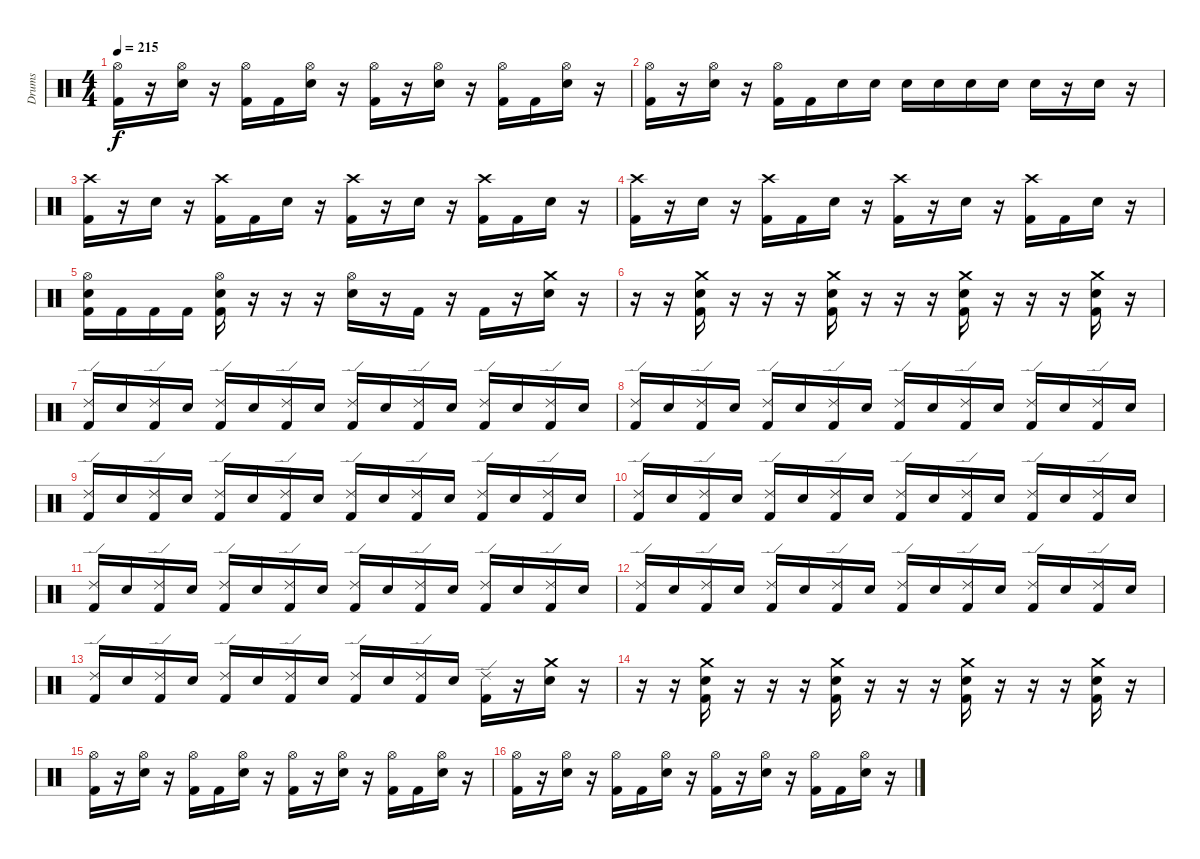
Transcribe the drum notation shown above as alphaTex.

\track ("Drums" "Drums") {instrument percussion}
\staff {score}
\articulation defaults
\ts (4 4)
\tempo 215
\clef neutral
\ks c
("Hi-Hat (open)" "Kick (hit) 2").16{dy f} r.16 ("Hi-Hat (open)" "Snare (hit) 2").16 r.16 ("Hi-Hat (open)" "Kick (hit) 2").16 "Kick (hit) 2".16 ("Hi-Hat (open)" "Snare (hit) 2").16 r.16 ("Hi-Hat (open)" "Kick (hit) 2").16 r.16 ("Hi-Hat (open)" "Snare (hit) 2").16 r.16 ("Hi-Hat (open)" "Kick (hit) 2").16 "Kick (hit) 2".16 ("Hi-Hat (open)" "Snare (hit) 2").16 r.16 |
("Hi-Hat (open)" "Kick (hit) 2").16 r.16 ("Hi-Hat (open)" "Snare (hit) 2").16 r.16 ("Hi-Hat (open)" "Kick (hit) 2").16 "Kick (hit) 2".16 "Snare (hit) 2".16 "Snare (hit) 2".16 "Snare (hit) 2".16 "Snare (hit) 2".16 "Snare (hit) 2".16 "Snare (hit) 2".16 "Snare (hit) 2".16 r.16 "Snare (hit) 2".16 r.16 |
("Crash high (hit)" "Kick (hit) 2").16 r.16 "Snare (hit) 2".16 r.16 ("Crash high (hit)" "Kick (hit) 2").16 "Kick (hit) 2".16 "Snare (hit) 2".16 r.16 ("Crash high (hit)" "Kick (hit) 2").16 r.16 "Snare (hit) 2".16 r.16 ("Crash high (hit)" "Kick (hit) 2").16 "Kick (hit) 2".16 "Snare (hit) 2".16 r.16 |
("Crash high (hit)" "Kick (hit) 2").16 r.16 "Snare (hit) 2".16 r.16 ("Crash high (hit)" "Kick (hit) 2").16 "Kick (hit) 2".16 "Snare (hit) 2".16 r.16 ("Crash high (hit)" "Kick (hit) 2").16 r.16 "Snare (hit) 2".16 r.16 ("Crash high (hit)" "Kick (hit) 2").16 "Kick (hit) 2".16 "Snare (hit) 2".16 r.16 |
("Hi-Hat (open)" "Snare (hit) 2" "Kick (hit) 2").16 "Kick (hit) 2".16 "Kick (hit) 2".16 "Kick (hit) 2".16 ("Hi-Hat (open)" "Snare (hit) 2" "Kick (hit) 2").16 r.16 r.16 r.16 ("Hi-Hat (open)" "Snare (hit) 2").16 r.16 "Kick (hit) 2".16 r.16 "Kick (hit) 2".16 r.16 ("Crash medium (hit)" "Snare (hit) 2").16 r.16 |
r.16 r.16 ("Crash medium (hit)" "Snare (hit) 2" "Kick (hit) 2").16 r.16 r.16 r.16 ("Crash medium (hit)" "Snare (hit) 2" "Kick (hit) 2").16 r.16 r.16 r.16 ("Crash medium (hit)" "Snare (hit) 2" "Kick (hit) 2").16 r.16 r.16 r.16 ("Crash medium (hit)" "Snare (hit) 2" "Kick (hit) 2").16 r.16 |
("Ride (edge) 2" "Kick (hit) 2").16 "Snare (hit) 2".16 ("Ride (edge) 2" "Kick (hit) 2").16 "Snare (hit) 2".16 ("Ride (edge) 2" "Kick (hit) 2").16 "Snare (hit) 2".16 ("Ride (edge) 2" "Kick (hit) 2").16 "Snare (hit) 2".16 ("Ride (edge) 2" "Kick (hit) 2").16 "Snare (hit) 2".16 ("Ride (edge) 2" "Kick (hit) 2").16 "Snare (hit) 2".16 ("Ride (edge) 2" "Kick (hit) 2").16 "Snare (hit) 2".16 ("Ride (edge) 2" "Kick (hit) 2").16 "Snare (hit) 2".16 |
("Ride (edge) 2" "Kick (hit) 2").16 "Snare (hit) 2".16 ("Ride (edge) 2" "Kick (hit) 2").16 "Snare (hit) 2".16 ("Ride (edge) 2" "Kick (hit) 2").16 "Snare (hit) 2".16 ("Ride (edge) 2" "Kick (hit) 2").16 "Snare (hit) 2".16 ("Ride (edge) 2" "Kick (hit) 2").16 "Snare (hit) 2".16 ("Ride (edge) 2" "Kick (hit) 2").16 "Snare (hit) 2".16 ("Ride (edge) 2" "Kick (hit) 2").16 "Snare (hit) 2".16 ("Ride (edge) 2" "Kick (hit) 2").16 "Snare (hit) 2".16 |
("Ride (edge) 2" "Kick (hit) 2").16 "Snare (hit) 2".16 ("Ride (edge) 2" "Kick (hit) 2").16 "Snare (hit) 2".16 ("Ride (edge) 2" "Kick (hit) 2").16 "Snare (hit) 2".16 ("Ride (edge) 2" "Kick (hit) 2").16 "Snare (hit) 2".16 ("Ride (edge) 2" "Kick (hit) 2").16 "Snare (hit) 2".16 ("Ride (edge) 2" "Kick (hit) 2").16 "Snare (hit) 2".16 ("Ride (edge) 2" "Kick (hit) 2").16 "Snare (hit) 2".16 ("Ride (edge) 2" "Kick (hit) 2").16 "Snare (hit) 2".16 |
("Ride (edge) 2" "Kick (hit) 2").16 "Snare (hit) 2".16 ("Ride (edge) 2" "Kick (hit) 2").16 "Snare (hit) 2".16 ("Ride (edge) 2" "Kick (hit) 2").16 "Snare (hit) 2".16 ("Ride (edge) 2" "Kick (hit) 2").16 "Snare (hit) 2".16 ("Ride (edge) 2" "Kick (hit) 2").16 "Snare (hit) 2".16 ("Ride (edge) 2" "Kick (hit) 2").16 "Snare (hit) 2".16 ("Ride (edge) 2" "Kick (hit) 2").16 "Snare (hit) 2".16 ("Ride (edge) 2" "Kick (hit) 2").16 "Snare (hit) 2".16 |
("Ride (edge) 2" "Kick (hit) 2").16 "Snare (hit) 2".16 ("Ride (edge) 2" "Kick (hit) 2").16 "Snare (hit) 2".16 ("Ride (edge) 2" "Kick (hit) 2").16 "Snare (hit) 2".16 ("Ride (edge) 2" "Kick (hit) 2").16 "Snare (hit) 2".16 ("Ride (edge) 2" "Kick (hit) 2").16 "Snare (hit) 2".16 ("Ride (edge) 2" "Kick (hit) 2").16 "Snare (hit) 2".16 ("Ride (edge) 2" "Kick (hit) 2").16 "Snare (hit) 2".16 ("Ride (edge) 2" "Kick (hit) 2").16 "Snare (hit) 2".16 |
("Ride (edge) 2" "Kick (hit) 2").16 "Snare (hit) 2".16 ("Ride (edge) 2" "Kick (hit) 2").16 "Snare (hit) 2".16 ("Ride (edge) 2" "Kick (hit) 2").16 "Snare (hit) 2".16 ("Ride (edge) 2" "Kick (hit) 2").16 "Snare (hit) 2".16 ("Ride (edge) 2" "Kick (hit) 2").16 "Snare (hit) 2".16 ("Ride (edge) 2" "Kick (hit) 2").16 "Snare (hit) 2".16 ("Ride (edge) 2" "Kick (hit) 2").16 "Snare (hit) 2".16 ("Ride (edge) 2" "Kick (hit) 2").16 "Snare (hit) 2".16 |
("Ride (edge) 2" "Kick (hit) 2").16 "Snare (hit) 2".16 ("Ride (edge) 2" "Kick (hit) 2").16 "Snare (hit) 2".16 ("Ride (edge) 2" "Kick (hit) 2").16 "Snare (hit) 2".16 ("Ride (edge) 2" "Kick (hit) 2").16 "Snare (hit) 2".16 ("Ride (edge) 2" "Kick (hit) 2").16 "Snare (hit) 2".16 ("Ride (edge) 2" "Kick (hit) 2").16 "Snare (hit) 2".16 ("Ride (edge) 2" "Kick (hit) 2").16 r.16 ("Crash medium (hit)" "Snare (hit) 2").16 r.16 |
r.16 r.16 ("Crash medium (hit)" "Snare (hit) 2" "Kick (hit) 2").16 r.16 r.16 r.16 ("Crash medium (hit)" "Snare (hit) 2" "Kick (hit) 2").16 r.16 r.16 r.16 ("Crash medium (hit)" "Snare (hit) 2" "Kick (hit) 2").16 r.16 r.16 r.16 ("Crash medium (hit)" "Snare (hit) 2" "Kick (hit) 2").16 r.16 |
("Hi-Hat (open)" "Kick (hit) 2").16 r.16 ("Hi-Hat (open)" "Snare (hit) 2").16 r.16 ("Hi-Hat (open)" "Kick (hit) 2").16 "Kick (hit) 2".16 ("Hi-Hat (open)" "Snare (hit) 2").16 r.16 ("Hi-Hat (open)" "Kick (hit) 2").16 r.16 ("Hi-Hat (open)" "Snare (hit) 2").16 r.16 ("Hi-Hat (open)" "Kick (hit) 2").16 "Kick (hit) 2".16 ("Hi-Hat (open)" "Snare (hit) 2").16 r.16 |
("Hi-Hat (open)" "Kick (hit) 2").16 r.16 ("Hi-Hat (open)" "Snare (hit) 2").16 r.16 ("Hi-Hat (open)" "Kick (hit) 2").16 "Kick (hit) 2".16 ("Hi-Hat (open)" "Snare (hit) 2").16 r.16 ("Hi-Hat (open)" "Kick (hit) 2").16 r.16 ("Hi-Hat (open)" "Snare (hit) 2").16 r.16 ("Hi-Hat (open)" "Kick (hit) 2").16 "Kick (hit) 2".16 ("Hi-Hat (open)" "Snare (hit) 2").16 r.16
